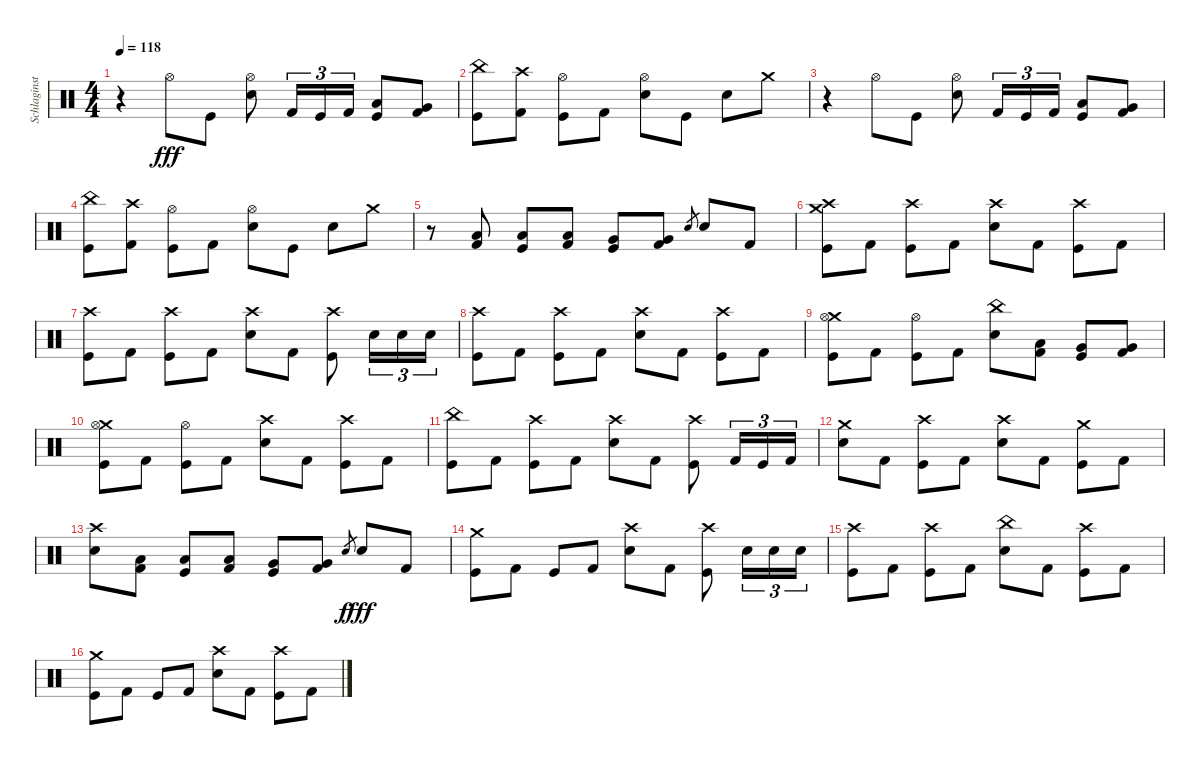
\track ("Schlaginstrumente - Auswahl" "Schlaginst") {instrument percussion}
\staff {score}
\articulation defaults
\ts (4 4)
\tempo 118
\clef neutral
\ks c
r.4{dy fff} "Hi-Hat (open)".8 "Kick (hit)".8 ("Hi-Hat (open)" "Snare (hit) 2").8 "Kick (hit) 2".16{tu (3 2)} "Kick (hit)".16{tu (3 2)} "Kick (hit) 2".16{tu (3 2)} ("Low Tom (hit)" "Kick (hit)").8 ("Very Low Tom (hit)" "Kick (hit) 2").8 |
("China (hit)" "Kick (hit)").8 ("Crash high (hit)" "Kick (hit) 2").8 ("Hi-Hat (open)" "Kick (hit)").8 "Kick (hit) 2".8 ("Hi-Hat (open)" "Snare (hit) 2").8 "Kick (hit)".8 "Snare (hit) 2".8 "Crash medium (hit)".8 |
r.4 "Hi-Hat (open)".8 "Kick (hit)".8 ("Hi-Hat (open)" "Snare (hit) 2").8 "Kick (hit) 2".16{tu (3 2)} "Kick (hit)".16{tu (3 2)} "Kick (hit) 2".16{tu (3 2)} ("Low Tom (hit)" "Kick (hit)").8 ("Very Low Tom (hit)" "Kick (hit) 2").8 |
("China (hit)" "Kick (hit)").8 ("Crash high (hit)" "Kick (hit) 2").8 ("Hi-Hat (open)" "Kick (hit)").8 "Kick (hit) 2".8 ("Hi-Hat (open)" "Snare (hit) 2").8 "Kick (hit)".8 "Snare (hit) 2".8 "Crash medium (hit)".8 |
r.8 ("Low Tom (hit)" "Kick (hit) 2").8 ("Low Tom (hit)" "Kick (hit)").8 ("Low Tom (hit)" "Kick (hit) 2").8 ("Very Low Tom (hit)" "Kick (hit)").8 ("Very Low Tom (hit)" "Kick (hit) 2").8 "Snare (hit) 2".8{gr} "Snare (hit) 2".8 "Kick (hit) 2".8 |
("Crash high (hit)" "Crash medium (hit)" "Kick (hit)").8 "Kick (hit) 2".8 ("Crash high (hit)" "Kick (hit)").8 "Kick (hit) 2".8 ("Crash high (hit)" "Snare (hit) 2").8 "Kick (hit) 2".8 ("Crash high (hit)" "Kick (hit)").8 "Kick (hit) 2".8 |
("Crash high (hit)" "Kick (hit)").8 "Kick (hit) 2".8 ("Crash high (hit)" "Kick (hit)").8 "Kick (hit) 2".8 ("Crash high (hit)" "Snare (hit) 2").8 "Kick (hit) 2".8 ("Crash high (hit)" "Kick (hit)").8 "Snare (hit) 2".16{tu (3 2)} "Snare (hit) 2".16{tu (3 2)} "Snare (hit) 2".16{tu (3 2)} |
("Crash high (hit)" "Kick (hit)").8 "Kick (hit) 2".8 ("Crash high (hit)" "Kick (hit)").8 "Kick (hit) 2".8 ("Crash high (hit)" "Snare (hit) 2").8 "Kick (hit) 2".8 ("Crash high (hit)" "Kick (hit)").8 "Kick (hit) 2".8 |
("Crash medium (hit)" "Hi-Hat (open)" "Kick (hit)").8 "Kick (hit) 2".8 ("Hi-Hat (open)" "Kick (hit)").8 "Kick (hit) 2".8 ("China (hit)" "Snare (hit) 2").8 ("Low Tom (hit)" "Kick (hit) 2").8 ("Very Low Tom (hit)" "Kick (hit)").8 ("Very Low Tom (hit)" "Kick (hit) 2").8 |
("Crash medium (hit)" "Hi-Hat (open)" "Kick (hit)").8 "Kick (hit) 2".8 ("Hi-Hat (open)" "Kick (hit)").8 "Kick (hit) 2".8 ("Crash high (hit)" "Snare (hit) 2").8 "Kick (hit) 2".8 ("Crash high (hit)" "Kick (hit)").8 "Kick (hit) 2".8 |
("China (hit)" "Kick (hit)").8 "Kick (hit) 2".8 ("Crash high (hit)" "Kick (hit)").8 "Kick (hit) 2".8 ("Crash high (hit)" "Snare (hit) 2").8 "Kick (hit) 2".8 ("Crash high (hit)" "Kick (hit)").8 "Kick (hit) 2".16{tu (3 2)} "Kick (hit)".16{tu (3 2)} "Kick (hit) 2".16{tu (3 2)} |
("Crash medium (hit)" "Snare (hit) 2").8 "Kick (hit) 2".8 ("Crash high (hit)" "Kick (hit)").8 "Kick (hit) 2".8 ("Crash high (hit)" "Snare (hit) 2").8 "Kick (hit) 2".8 ("Crash medium (hit)" "Kick (hit)").8 "Kick (hit) 2".8 |
("Crash high (hit)" "Snare (hit) 2").8 ("Low Tom (hit)" "Kick (hit) 2").8 ("Low Tom (hit)" "Kick (hit)").8 ("Low Tom (hit)" "Kick (hit) 2").8 ("Very Low Tom (hit)" "Kick (hit)").8 ("Very Low Tom (hit)" "Kick (hit) 2").8 "Snare (hit) 2".8{gr dy f} "Snare (hit) 2".8{dy fff} "Kick (hit) 2".8 |
("Crash medium (hit)" "Kick (hit)").8 "Kick (hit) 2".8 "Kick (hit)".8 "Kick (hit) 2".8 ("Crash high (hit)" "Snare (hit) 2").8 "Kick (hit) 2".8 ("Crash high (hit)" "Kick (hit)").8 "Snare (hit) 2".16{tu (3 2)} "Snare (hit) 2".16{tu (3 2)} "Snare (hit) 2".16{tu (3 2)} |
("Crash high (hit)" "Kick (hit)").8 "Kick (hit) 2".8 ("Crash high (hit)" "Kick (hit)").8 "Kick (hit) 2".8 ("China (hit)" "Snare (hit) 2").8 "Kick (hit) 2".8 ("Crash high (hit)" "Kick (hit)").8 "Kick (hit) 2".8 |
("Crash medium (hit)" "Kick (hit)").8 "Kick (hit) 2".8 "Kick (hit)".8 "Kick (hit) 2".8 ("Crash high (hit)" "Snare (hit) 2").8 "Kick (hit) 2".8 ("Crash high (hit)" "Kick (hit)").8 "Kick (hit) 2".8
